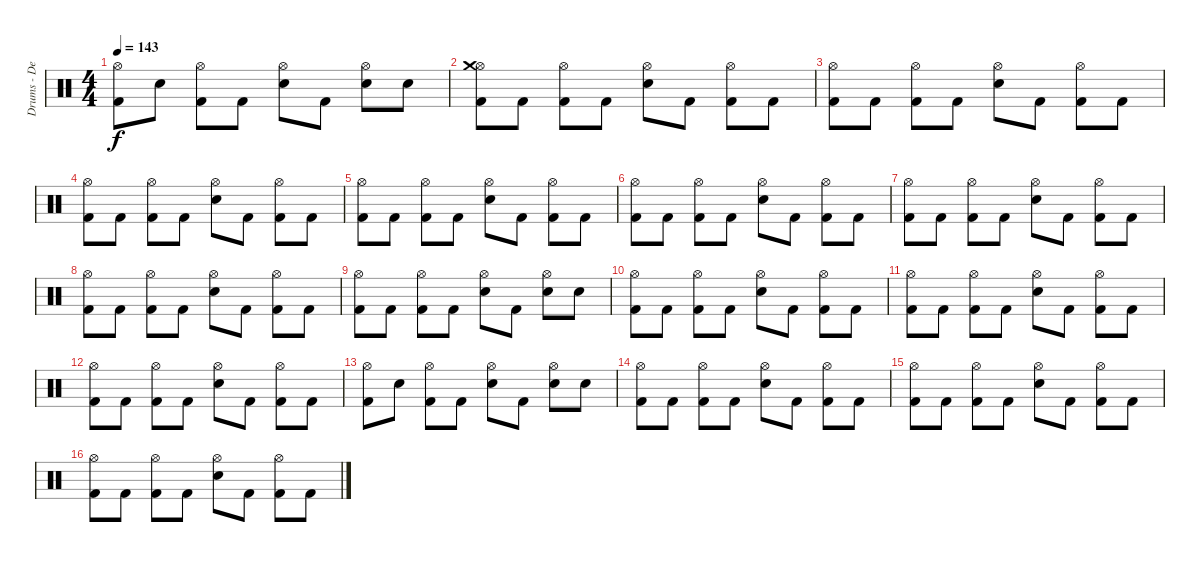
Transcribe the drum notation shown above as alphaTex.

\track ("Drums - Dennis Poschwatta" "Drums - De") {instrument percussion}
\staff {score}
\articulation defaults
\ts (4 4)
\tempo 143
\clef neutral
\ks c
("Hi-Hat (open)" "Kick (hit) 2").8{dy f} "Electric Snare (hit)".8 ("Hi-Hat (open)" "Kick (hit) 2").8 "Kick (hit) 2".8 ("Hi-Hat (open)" "Electric Snare (hit)").8 "Kick (hit) 2".8 ("Hi-Hat (open)" "Electric Snare (hit)").8 "Electric Snare (hit)".8 |
("Hi-Hat (open)" "Crash medium (hit)" "Kick (hit) 2").8 "Kick (hit) 2".8 ("Hi-Hat (open)" "Kick (hit) 2").8 "Kick (hit) 2".8 ("Hi-Hat (open)" "Electric Snare (hit)").8 "Kick (hit) 2".8 ("Hi-Hat (open)" "Kick (hit) 2").8 "Kick (hit) 2".8 |
("Hi-Hat (open)" "Kick (hit) 2").8 "Kick (hit) 2".8 ("Hi-Hat (open)" "Kick (hit) 2").8 "Kick (hit) 2".8 ("Hi-Hat (open)" "Electric Snare (hit)").8 "Kick (hit) 2".8 ("Hi-Hat (open)" "Kick (hit) 2").8 "Kick (hit) 2".8 |
("Hi-Hat (open)" "Kick (hit) 2").8 "Kick (hit) 2".8 ("Hi-Hat (open)" "Kick (hit) 2").8 "Kick (hit) 2".8 ("Hi-Hat (open)" "Electric Snare (hit)").8 "Kick (hit) 2".8 ("Hi-Hat (open)" "Kick (hit) 2").8 "Kick (hit) 2".8 |
("Hi-Hat (open)" "Kick (hit) 2").8 "Kick (hit) 2".8 ("Hi-Hat (open)" "Kick (hit) 2").8 "Kick (hit) 2".8 ("Hi-Hat (open)" "Electric Snare (hit)").8 "Kick (hit) 2".8 ("Hi-Hat (open)" "Kick (hit) 2").8 "Kick (hit) 2".8 |
("Hi-Hat (open)" "Kick (hit) 2").8 "Kick (hit) 2".8 ("Hi-Hat (open)" "Kick (hit) 2").8 "Kick (hit) 2".8 ("Hi-Hat (open)" "Electric Snare (hit)").8 "Kick (hit) 2".8 ("Hi-Hat (open)" "Kick (hit) 2").8 "Kick (hit) 2".8 |
("Hi-Hat (open)" "Kick (hit) 2").8 "Kick (hit) 2".8 ("Hi-Hat (open)" "Kick (hit) 2").8 "Kick (hit) 2".8 ("Hi-Hat (open)" "Electric Snare (hit)").8 "Kick (hit) 2".8 ("Hi-Hat (open)" "Kick (hit) 2").8 "Kick (hit) 2".8 |
("Hi-Hat (open)" "Kick (hit) 2").8 "Kick (hit) 2".8 ("Hi-Hat (open)" "Kick (hit) 2").8 "Kick (hit) 2".8 ("Hi-Hat (open)" "Electric Snare (hit)").8 "Kick (hit) 2".8 ("Hi-Hat (open)" "Kick (hit) 2").8 "Kick (hit) 2".8 |
("Hi-Hat (open)" "Kick (hit) 2").8 "Kick (hit) 2".8 ("Hi-Hat (open)" "Kick (hit) 2").8 "Kick (hit) 2".8 ("Hi-Hat (open)" "Electric Snare (hit)").8 "Kick (hit) 2".8 ("Hi-Hat (open)" "Electric Snare (hit)").8 "Electric Snare (hit)".8 |
("Hi-Hat (open)" "Kick (hit) 2").8 "Kick (hit) 2".8 ("Hi-Hat (open)" "Kick (hit) 2").8 "Kick (hit) 2".8 ("Hi-Hat (open)" "Electric Snare (hit)").8 "Kick (hit) 2".8 ("Hi-Hat (open)" "Kick (hit) 2").8 "Kick (hit) 2".8 |
("Hi-Hat (open)" "Kick (hit) 2").8 "Kick (hit) 2".8 ("Hi-Hat (open)" "Kick (hit) 2").8 "Kick (hit) 2".8 ("Hi-Hat (open)" "Electric Snare (hit)").8 "Kick (hit) 2".8 ("Hi-Hat (open)" "Kick (hit) 2").8 "Kick (hit) 2".8 |
("Hi-Hat (open)" "Kick (hit) 2").8 "Kick (hit) 2".8 ("Hi-Hat (open)" "Kick (hit) 2").8 "Kick (hit) 2".8 ("Hi-Hat (open)" "Electric Snare (hit)").8 "Kick (hit) 2".8 ("Hi-Hat (open)" "Kick (hit) 2").8 "Kick (hit) 2".8 |
("Hi-Hat (open)" "Kick (hit) 2").8 "Electric Snare (hit)".8 ("Hi-Hat (open)" "Kick (hit) 2").8 "Kick (hit) 2".8 ("Hi-Hat (open)" "Electric Snare (hit)").8 "Kick (hit) 2".8 ("Hi-Hat (open)" "Electric Snare (hit)").8 "Electric Snare (hit)".8 |
("Hi-Hat (open)" "Kick (hit) 2").8 "Kick (hit) 2".8 ("Hi-Hat (open)" "Kick (hit) 2").8 "Kick (hit) 2".8 ("Hi-Hat (open)" "Electric Snare (hit)").8 "Kick (hit) 2".8 ("Hi-Hat (open)" "Kick (hit) 2").8 "Kick (hit) 2".8 |
("Hi-Hat (open)" "Kick (hit) 2").8 "Kick (hit) 2".8 ("Hi-Hat (open)" "Kick (hit) 2").8 "Kick (hit) 2".8 ("Hi-Hat (open)" "Electric Snare (hit)").8 "Kick (hit) 2".8 ("Hi-Hat (open)" "Kick (hit) 2").8 "Kick (hit) 2".8 |
("Hi-Hat (open)" "Kick (hit) 2").8 "Kick (hit) 2".8 ("Hi-Hat (open)" "Kick (hit) 2").8 "Kick (hit) 2".8 ("Hi-Hat (open)" "Electric Snare (hit)").8 "Kick (hit) 2".8 ("Hi-Hat (open)" "Kick (hit) 2").8 "Kick (hit) 2".8
